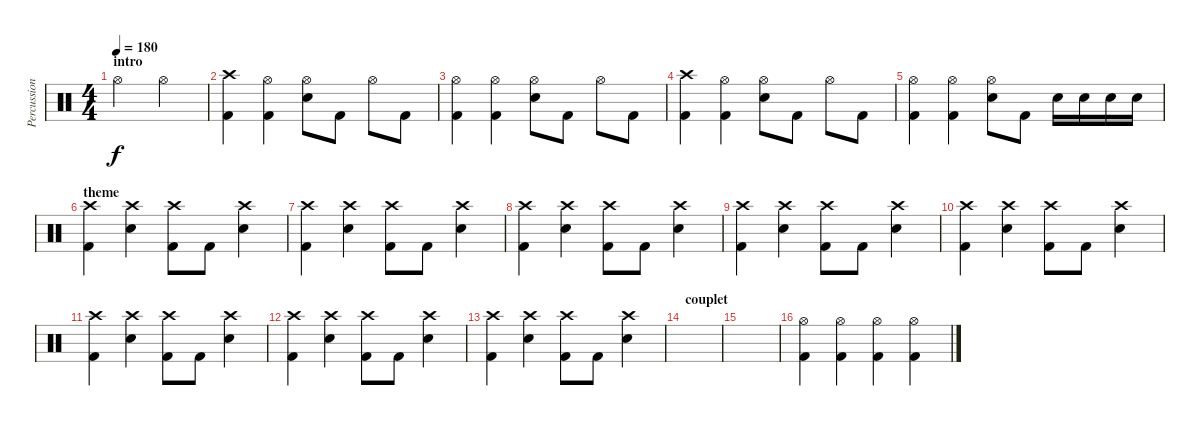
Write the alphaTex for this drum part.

\track ("Percussions" "Percussion") {instrument percussion}
\staff {score}
\articulation defaults
\ts (4 4)
\section ("" "intro")
\tempo 180
\clef neutral
\ks c "Hi-Hat (open)".2{dy f} "Hi-Hat (open)".2
|
("Crash high (hit)" "Kick (hit) 2").4 ("Hi-Hat (open)" "Kick (hit) 2").4 ("Hi-Hat (open)" "Snare (hit) 2").8 "Kick (hit) 2".8 "Hi-Hat (open)".8 "Kick (hit) 2".8 |
("Hi-Hat (open)" "Kick (hit) 2").4 ("Hi-Hat (open)" "Kick (hit) 2").4 ("Hi-Hat (open)" "Snare (hit) 2").8 "Kick (hit) 2".8 "Hi-Hat (open)".8 "Kick (hit) 2".8 |
("Crash high (hit)" "Kick (hit) 2").4 ("Hi-Hat (open)" "Kick (hit) 2").4 ("Hi-Hat (open)" "Snare (hit) 2").8 "Kick (hit) 2".8 "Hi-Hat (open)".8 "Kick (hit) 2".8 |
("Hi-Hat (open)" "Kick (hit) 2").4 ("Hi-Hat (open)" "Kick (hit) 2").4 ("Hi-Hat (open)" "Snare (hit) 2").8 "Kick (hit) 2".8 "Snare (hit) 2".16 "Snare (hit) 2".16 "Snare (hit) 2".16 "Snare (hit) 2".16 |
\section ("" "theme")
("Crash high (hit)" "Kick (hit) 2").4 ("Crash high (hit)" "Snare (hit) 2").4 ("Crash high (hit)" "Kick (hit) 2").8 "Kick (hit) 2".8 ("Crash high (hit)" "Snare (hit) 2").4 |
("Crash high (hit)" "Kick (hit) 2").4 ("Crash high (hit)" "Snare (hit) 2").4 ("Crash high (hit)" "Kick (hit) 2").8 "Kick (hit) 2".8 ("Crash high (hit)" "Snare (hit) 2").4 |
("Crash high (hit)" "Kick (hit) 2").4 ("Crash high (hit)" "Snare (hit) 2").4 ("Crash high (hit)" "Kick (hit) 2").8 "Kick (hit) 2".8 ("Crash high (hit)" "Snare (hit) 2").4 |
("Crash high (hit)" "Kick (hit) 2").4 ("Crash high (hit)" "Snare (hit) 2").4 ("Crash high (hit)" "Kick (hit) 2").8 "Kick (hit) 2".8 ("Crash high (hit)" "Snare (hit) 2").4 |
("Crash high (hit)" "Kick (hit) 2").4 ("Crash high (hit)" "Snare (hit) 2").4 ("Crash high (hit)" "Kick (hit) 2").8 "Kick (hit) 2".8 ("Crash high (hit)" "Snare (hit) 2").4 |
("Crash high (hit)" "Kick (hit) 2").4 ("Crash high (hit)" "Snare (hit) 2").4 ("Crash high (hit)" "Kick (hit) 2").8 "Kick (hit) 2".8 ("Crash high (hit)" "Snare (hit) 2").4 |
("Crash high (hit)" "Kick (hit) 2").4 ("Crash high (hit)" "Snare (hit) 2").4 ("Crash high (hit)" "Kick (hit) 2").8 "Kick (hit) 2".8 ("Crash high (hit)" "Snare (hit) 2").4 |
("Crash high (hit)" "Kick (hit) 2").4 ("Crash high (hit)" "Snare (hit) 2").4 ("Crash high (hit)" "Kick (hit) 2").8 "Kick (hit) 2".8 ("Crash high (hit)" "Snare (hit) 2").4 |
\section ("" "couplet")
|
|
("Hi-Hat (open)" "Kick (hit) 2").4{volume 10} ("Hi-Hat (open)" "Kick (hit) 2").4 ("Hi-Hat (open)" "Kick (hit) 2").4 ("Hi-Hat (open)" "Kick (hit) 2").4
